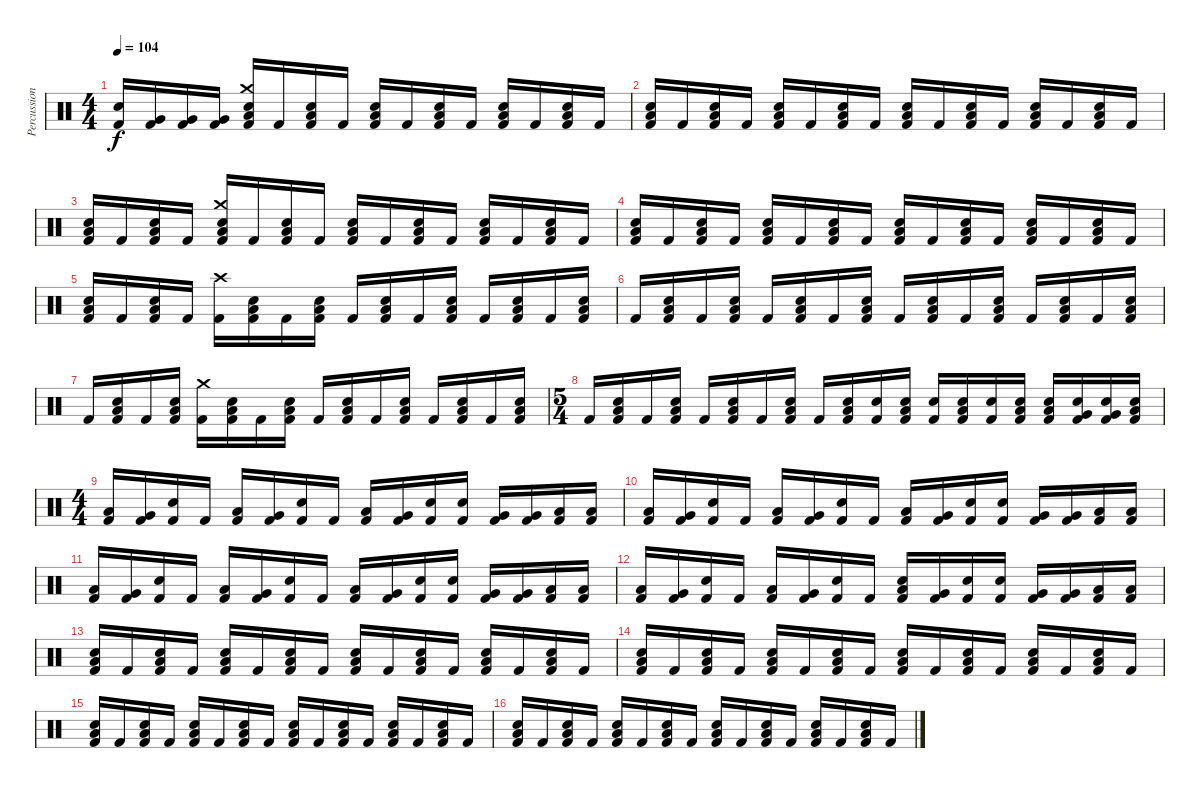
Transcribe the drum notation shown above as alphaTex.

\track ("Percussion" "Percussion") {instrument percussion}
\staff {score}
\articulation defaults
\ts (4 4)
\tempo 104
\clef neutral
\ks c
("Snare (hit) 2" "Kick (hit) 2").16{dy f} ("Very Low Tom (hit)" "Kick (hit) 2").16 ("Very Low Tom (hit)" "Kick (hit) 2").16 ("Very Low Tom (hit)" "Kick (hit) 2").16 ("Crash medium (hit)" "Low Floor Tom (hit)" "Snare (hit) 2" "Kick (hit) 2").16 "Kick (hit) 2".16 ("Low Floor Tom (hit)" "Snare (hit) 2" "Kick (hit) 2").16 "Kick (hit) 2".16 ("Low Floor Tom (hit)" "Snare (hit) 2" "Kick (hit) 2").16 "Kick (hit) 2".16 ("Low Floor Tom (hit)" "Snare (hit) 2" "Kick (hit) 2").16 "Kick (hit) 2".16 ("Low Floor Tom (hit)" "Snare (hit) 2" "Kick (hit) 2").16 "Kick (hit) 2".16 ("Low Floor Tom (hit)" "Snare (hit) 2" "Kick (hit) 2").16 "Kick (hit) 2".16 |
("Low Floor Tom (hit)" "Snare (hit) 2" "Kick (hit) 2").16 "Kick (hit) 2".16 ("Low Floor Tom (hit)" "Snare (hit) 2" "Kick (hit) 2").16 "Kick (hit) 2".16 ("Low Floor Tom (hit)" "Snare (hit) 2" "Kick (hit) 2").16 "Kick (hit) 2".16 ("Low Floor Tom (hit)" "Snare (hit) 2" "Kick (hit) 2").16 "Kick (hit) 2".16 ("Low Floor Tom (hit)" "Snare (hit) 2" "Kick (hit) 2").16 "Kick (hit) 2".16 ("Low Floor Tom (hit)" "Snare (hit) 2" "Kick (hit) 2").16 "Kick (hit) 2".16 ("Low Floor Tom (hit)" "Snare (hit) 2" "Kick (hit) 2").16 "Kick (hit) 2".16 ("Low Floor Tom (hit)" "Snare (hit) 2" "Kick (hit) 2").16 "Kick (hit) 2".16 |
("Low Floor Tom (hit)" "Snare (hit) 2" "Kick (hit) 2").16 "Kick (hit) 2".16 ("Low Floor Tom (hit)" "Snare (hit) 2" "Kick (hit) 2").16 "Kick (hit) 2".16 ("Crash medium (hit)" "Low Floor Tom (hit)" "Snare (hit) 2" "Kick (hit) 2").16 "Kick (hit) 2".16 ("Low Floor Tom (hit)" "Snare (hit) 2" "Kick (hit) 2").16 "Kick (hit) 2".16 ("Low Floor Tom (hit)" "Snare (hit) 2" "Kick (hit) 2").16 "Kick (hit) 2".16 ("Low Floor Tom (hit)" "Snare (hit) 2" "Kick (hit) 2").16 "Kick (hit) 2".16 ("Low Floor Tom (hit)" "Snare (hit) 2" "Kick (hit) 2").16 "Kick (hit) 2".16 ("Low Floor Tom (hit)" "Snare (hit) 2" "Kick (hit) 2").16 "Kick (hit) 2".16 |
("Low Floor Tom (hit)" "Snare (hit) 2" "Kick (hit) 2").16 "Kick (hit) 2".16 ("Low Floor Tom (hit)" "Snare (hit) 2" "Kick (hit) 2").16 "Kick (hit) 2".16 ("Low Floor Tom (hit)" "Snare (hit) 2" "Kick (hit) 2").16 "Kick (hit) 2".16 ("Low Floor Tom (hit)" "Snare (hit) 2" "Kick (hit) 2").16 "Kick (hit) 2".16 ("Low Floor Tom (hit)" "Snare (hit) 2" "Kick (hit) 2").16 "Kick (hit) 2".16 ("Low Floor Tom (hit)" "Snare (hit) 2" "Kick (hit) 2").16 "Kick (hit) 2".16 ("Low Floor Tom (hit)" "Snare (hit) 2" "Kick (hit) 2").16 "Kick (hit) 2".16 ("Low Floor Tom (hit)" "Snare (hit) 2" "Kick (hit) 2").16 "Kick (hit) 2".16 |
("Low Floor Tom (hit)" "Snare (hit) 2" "Kick (hit) 2").16 "Kick (hit) 2".16 ("Low Floor Tom (hit)" "Snare (hit) 2" "Kick (hit) 2").16 "Kick (hit) 2".16 ("Crash high (hit)" "Kick (hit) 2").16 ("Low Floor Tom (hit)" "Snare (hit) 2" "Kick (hit) 2").16 "Kick (hit) 2".16 ("Low Floor Tom (hit)" "Snare (hit) 2" "Kick (hit) 2").16 "Kick (hit) 2".16 ("Low Floor Tom (hit)" "Snare (hit) 2" "Kick (hit) 2").16 "Kick (hit) 2".16 ("Low Floor Tom (hit)" "Snare (hit) 2" "Kick (hit) 2").16 "Kick (hit) 2".16 ("Low Floor Tom (hit)" "Snare (hit) 2" "Kick (hit) 2").16 "Kick (hit) 2".16 ("Low Floor Tom (hit)" "Snare (hit) 2" "Kick (hit) 2").16 |
"Kick (hit) 2".16 ("Low Floor Tom (hit)" "Snare (hit) 2" "Kick (hit) 2").16 "Kick (hit) 2".16 ("Low Floor Tom (hit)" "Snare (hit) 2" "Kick (hit) 2").16 "Kick (hit) 2".16 ("Low Floor Tom (hit)" "Snare (hit) 2" "Kick (hit) 2").16 "Kick (hit) 2".16 ("Low Floor Tom (hit)" "Snare (hit) 2" "Kick (hit) 2").16 "Kick (hit) 2".16 ("Low Floor Tom (hit)" "Snare (hit) 2" "Kick (hit) 2").16 "Kick (hit) 2".16 ("Low Floor Tom (hit)" "Snare (hit) 2" "Kick (hit) 2").16 "Kick (hit) 2".16 ("Low Floor Tom (hit)" "Snare (hit) 2" "Kick (hit) 2").16 "Kick (hit) 2".16 ("Low Floor Tom (hit)" "Snare (hit) 2" "Kick (hit) 2").16 |
"Kick (hit) 2".16 ("Low Floor Tom (hit)" "Snare (hit) 2" "Kick (hit) 2").16 "Kick (hit) 2".16 ("Low Floor Tom (hit)" "Snare (hit) 2" "Kick (hit) 2").16 ("Crash medium (hit)" "Kick (hit) 2").16 ("Low Floor Tom (hit)" "Snare (hit) 2" "Kick (hit) 2").16 "Kick (hit) 2".16 ("Low Floor Tom (hit)" "Snare (hit) 2" "Kick (hit) 2").16 "Kick (hit) 2".16 ("Low Floor Tom (hit)" "Snare (hit) 2" "Kick (hit) 2").16 "Kick (hit) 2".16 ("Low Floor Tom (hit)" "Snare (hit) 2" "Kick (hit) 2").16 "Kick (hit) 2".16 ("Low Floor Tom (hit)" "Snare (hit) 2" "Kick (hit) 2").16 "Kick (hit) 2".16 ("Low Floor Tom (hit)" "Snare (hit) 2" "Kick (hit) 2").16 |
\ts (5 4)
"Kick (hit) 2".16 ("Low Floor Tom (hit)" "Snare (hit) 2" "Kick (hit) 2").16 "Kick (hit) 2".16 ("Low Floor Tom (hit)" "Snare (hit) 2" "Kick (hit) 2").16 "Kick (hit) 2".16 ("Low Floor Tom (hit)" "Snare (hit) 2" "Kick (hit) 2").16 "Kick (hit) 2".16 ("Low Floor Tom (hit)" "Snare (hit) 2" "Kick (hit) 2").16 "Kick (hit) 2".16 ("Low Floor Tom (hit)" "Snare (hit) 2" "Kick (hit) 2").16 ("Snare (hit) 2" "Kick (hit) 2").16 ("Low Floor Tom (hit)" "Snare (hit) 2" "Kick (hit) 2").16 ("Snare (hit) 2" "Kick (hit) 2").16 ("Low Floor Tom (hit)" "Snare (hit) 2" "Kick (hit) 2").16 ("Snare (hit) 2" "Kick (hit) 2").16 ("Low Floor Tom (hit)" "Snare (hit) 2" "Kick (hit) 2").16 ("Low Tom (hit)" "Snare (hit) 2" "Kick (hit) 2").16 ("Very Low Tom (hit)" "Snare (hit) 2" "Kick (hit) 2").16 ("Very Low Tom (hit)" "Snare (hit) 2" "Kick (hit) 2").16 ("Low Floor Tom (hit)" "Snare (hit) 2" "Kick (hit) 2").16 |
\ts (4 4)
("Low Tom (hit)" "Kick (hit) 2").16 ("Very Low Tom (hit)" "Kick (hit) 2").16 ("Snare (hit) 2" "Kick (hit) 2").16 "Kick (hit) 2".16 ("Low Tom (hit)" "Kick (hit) 2").16 ("Very Low Tom (hit)" "Kick (hit) 2").16 ("Snare (hit) 2" "Kick (hit) 2").16 "Kick (hit) 2".16 ("Low Tom (hit)" "Kick (hit) 2").16 ("Very Low Tom (hit)" "Kick (hit) 2").16 ("Snare (hit) 2" "Kick (hit) 2").16 ("Snare (hit) 2" "Kick (hit) 2").16 ("Very Low Tom (hit)" "Kick (hit) 2").16 ("Very Low Tom (hit)" "Kick (hit) 2").16 ("Low Floor Tom (hit)" "Kick (hit) 2").16 ("Low Floor Tom (hit)" "Kick (hit) 2").16 |
("Low Tom (hit)" "Kick (hit) 2").16 ("Very Low Tom (hit)" "Kick (hit) 2").16 ("Snare (hit) 2" "Kick (hit) 2").16 "Kick (hit) 2".16 ("Low Tom (hit)" "Kick (hit) 2").16 ("Very Low Tom (hit)" "Kick (hit) 2").16 ("Snare (hit) 2" "Kick (hit) 2").16 "Kick (hit) 2".16 ("Low Tom (hit)" "Kick (hit) 2").16 ("Very Low Tom (hit)" "Kick (hit) 2").16 ("Snare (hit) 2" "Kick (hit) 2").16 ("Snare (hit) 2" "Kick (hit) 2").16 ("Very Low Tom (hit)" "Kick (hit) 2").16 ("Very Low Tom (hit)" "Kick (hit) 2").16 ("Low Floor Tom (hit)" "Kick (hit) 2").16 ("Low Floor Tom (hit)" "Kick (hit) 2").16 |
("Low Tom (hit)" "Kick (hit) 2").16 ("Very Low Tom (hit)" "Kick (hit) 2").16 ("Snare (hit) 2" "Kick (hit) 2").16 "Kick (hit) 2".16 ("Low Tom (hit)" "Kick (hit) 2").16 ("Very Low Tom (hit)" "Kick (hit) 2").16 ("Snare (hit) 2" "Kick (hit) 2").16 "Kick (hit) 2".16 ("Low Tom (hit)" "Kick (hit) 2").16 ("Very Low Tom (hit)" "Kick (hit) 2").16 ("Snare (hit) 2" "Kick (hit) 2").16 ("Snare (hit) 2" "Kick (hit) 2").16 ("Very Low Tom (hit)" "Kick (hit) 2").16 ("Very Low Tom (hit)" "Kick (hit) 2").16 ("Low Floor Tom (hit)" "Kick (hit) 2").16 ("Low Floor Tom (hit)" "Kick (hit) 2").16 |
("Low Tom (hit)" "Kick (hit) 2").16 ("Very Low Tom (hit)" "Kick (hit) 2").16 ("Snare (hit) 2" "Kick (hit) 2").16 "Kick (hit) 2".16 ("Low Tom (hit)" "Kick (hit) 2").16 ("Very Low Tom (hit)" "Kick (hit) 2").16 ("Snare (hit) 2" "Kick (hit) 2").16 "Kick (hit) 2".16 ("Low Tom (hit)" "Snare (hit) 2" "Kick (hit) 2").16 ("Very Low Tom (hit)" "Kick (hit) 2").16 ("Snare (hit) 2" "Kick (hit) 2").16 ("Snare (hit) 2" "Kick (hit) 2").16 ("Very Low Tom (hit)" "Kick (hit) 2").16 ("Very Low Tom (hit)" "Kick (hit) 2").16 ("Low Floor Tom (hit)" "Kick (hit) 2").16 ("Low Floor Tom (hit)" "Kick (hit) 2").16 |
("Low Floor Tom (hit)" "Snare (hit) 2" "Kick (hit) 2").16 "Kick (hit) 2".16 ("Low Floor Tom (hit)" "Snare (hit) 2" "Kick (hit) 2").16 "Kick (hit) 2".16 ("Low Floor Tom (hit)" "Snare (hit) 2" "Kick (hit) 2").16 "Kick (hit) 2".16 ("Low Floor Tom (hit)" "Snare (hit) 2" "Kick (hit) 2").16 "Kick (hit) 2".16 ("Low Floor Tom (hit)" "Snare (hit) 2" "Kick (hit) 2").16 "Kick (hit) 2".16 ("Low Floor Tom (hit)" "Snare (hit) 2" "Kick (hit) 2").16 "Kick (hit) 2".16 ("Low Floor Tom (hit)" "Snare (hit) 2" "Kick (hit) 2").16 "Kick (hit) 2".16 ("Low Floor Tom (hit)" "Snare (hit) 2" "Kick (hit) 2").16 "Kick (hit) 2".16 |
("Low Floor Tom (hit)" "Snare (hit) 2" "Kick (hit) 2").16 "Kick (hit) 2".16 ("Low Floor Tom (hit)" "Snare (hit) 2" "Kick (hit) 2").16 "Kick (hit) 2".16 ("Low Floor Tom (hit)" "Snare (hit) 2" "Kick (hit) 2").16 "Kick (hit) 2".16 ("Low Floor Tom (hit)" "Snare (hit) 2" "Kick (hit) 2").16 "Kick (hit) 2".16 ("Low Floor Tom (hit)" "Snare (hit) 2" "Kick (hit) 2").16 "Kick (hit) 2".16 ("Low Floor Tom (hit)" "Snare (hit) 2" "Kick (hit) 2").16 "Kick (hit) 2".16 ("Low Floor Tom (hit)" "Snare (hit) 2" "Kick (hit) 2").16 "Kick (hit) 2".16 ("Low Floor Tom (hit)" "Snare (hit) 2" "Kick (hit) 2").16 "Kick (hit) 2".16 |
("Low Floor Tom (hit)" "Snare (hit) 2" "Kick (hit) 2").16 "Kick (hit) 2".16 ("Low Floor Tom (hit)" "Snare (hit) 2" "Kick (hit) 2").16 "Kick (hit) 2".16 ("Low Floor Tom (hit)" "Snare (hit) 2" "Kick (hit) 2").16 "Kick (hit) 2".16 ("Low Floor Tom (hit)" "Snare (hit) 2" "Kick (hit) 2").16 "Kick (hit) 2".16 ("Low Floor Tom (hit)" "Snare (hit) 2" "Kick (hit) 2").16 "Kick (hit) 2".16 ("Low Floor Tom (hit)" "Snare (hit) 2" "Kick (hit) 2").16 "Kick (hit) 2".16 ("Low Floor Tom (hit)" "Snare (hit) 2" "Kick (hit) 2").16 "Kick (hit) 2".16 ("Low Floor Tom (hit)" "Snare (hit) 2" "Kick (hit) 2").16 "Kick (hit) 2".16 |
("Low Floor Tom (hit)" "Snare (hit) 2" "Kick (hit) 2").16 "Kick (hit) 2".16 ("Low Floor Tom (hit)" "Snare (hit) 2" "Kick (hit) 2").16 "Kick (hit) 2".16 ("Low Floor Tom (hit)" "Snare (hit) 2" "Kick (hit) 2").16 "Kick (hit) 2".16 ("Low Floor Tom (hit)" "Snare (hit) 2" "Kick (hit) 2").16 "Kick (hit) 2".16 ("Low Floor Tom (hit)" "Snare (hit) 2" "Kick (hit) 2").16 "Kick (hit) 2".16 ("Low Floor Tom (hit)" "Snare (hit) 2" "Kick (hit) 2").16 "Kick (hit) 2".16 ("Low Floor Tom (hit)" "Snare (hit) 2" "Kick (hit) 2").16 "Kick (hit) 2".16 ("Low Floor Tom (hit)" "Snare (hit) 2" "Kick (hit) 2").16 "Kick (hit) 2".16
